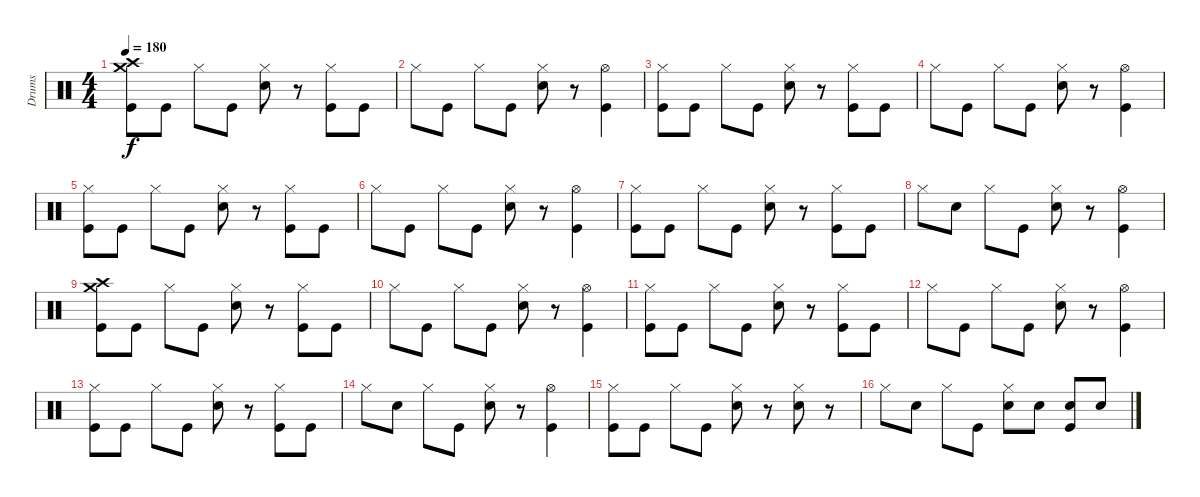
\track ("Drums" "Drums") {instrument percussion}
\staff {score}
\articulation defaults
\ts (4 4)
\tempo 180
\clef neutral
\ks c
("Crash medium (hit)" "Crash high (hit)" "Kick (hit)").8{dy f} "Kick (hit)".8 "Hi-Hat (closed)".8 "Kick (hit)".8 ("Hi-Hat (closed)" "Snare (hit) 2").8 r.8 ("Hi-Hat (closed)" "Kick (hit)").8 "Kick (hit)".8 |
"Hi-Hat (closed)".8 "Kick (hit)".8 "Hi-Hat (closed)".8 "Kick (hit)".8 ("Hi-Hat (closed)" "Snare (hit) 2").8 r.8 ("Hi-Hat (open)" "Kick (hit)").4 |
("Hi-Hat (closed)" "Kick (hit)").8 "Kick (hit)".8 "Hi-Hat (closed)".8 "Kick (hit)".8 ("Hi-Hat (closed)" "Snare (hit) 2").8 r.8 ("Hi-Hat (closed)" "Kick (hit)").8 "Kick (hit)".8 |
"Hi-Hat (closed)".8 "Kick (hit)".8 "Hi-Hat (closed)".8 "Kick (hit)".8 ("Hi-Hat (closed)" "Snare (hit) 2").8 r.8 ("Hi-Hat (open)" "Kick (hit)").4 |
("Hi-Hat (closed)" "Kick (hit)").8 "Kick (hit)".8 "Hi-Hat (closed)".8 "Kick (hit)".8 ("Hi-Hat (closed)" "Snare (hit) 2").8 r.8 ("Hi-Hat (closed)" "Kick (hit)").8 "Kick (hit)".8 |
"Hi-Hat (closed)".8 "Kick (hit)".8 "Hi-Hat (closed)".8 "Kick (hit)".8 ("Hi-Hat (closed)" "Snare (hit) 2").8 r.8 ("Hi-Hat (open)" "Kick (hit)").4 |
("Hi-Hat (closed)" "Kick (hit)").8 "Kick (hit)".8 "Hi-Hat (closed)".8 "Kick (hit)".8 ("Hi-Hat (closed)" "Snare (hit) 2").8 r.8 ("Hi-Hat (closed)" "Kick (hit)").8 "Kick (hit)".8 |
"Hi-Hat (closed)".8 "Snare (hit) 2".8 "Hi-Hat (closed)".8 "Kick (hit)".8 ("Hi-Hat (closed)" "Snare (hit) 2").8 r.8 ("Hi-Hat (open)" "Kick (hit)").4 |
("Crash medium (hit)" "Crash high (hit)" "Kick (hit)").8 "Kick (hit)".8 "Hi-Hat (closed)".8 "Kick (hit)".8 ("Hi-Hat (closed)" "Snare (hit) 2").8 r.8 ("Hi-Hat (closed)" "Kick (hit)").8 "Kick (hit)".8 |
"Hi-Hat (closed)".8 "Kick (hit)".8 "Hi-Hat (closed)".8 "Kick (hit)".8 ("Hi-Hat (closed)" "Snare (hit) 2").8 r.8 ("Hi-Hat (open)" "Kick (hit)").4 |
("Hi-Hat (closed)" "Kick (hit)").8 "Kick (hit)".8 "Hi-Hat (closed)".8 "Kick (hit)".8 ("Hi-Hat (closed)" "Snare (hit) 2").8 r.8 ("Hi-Hat (closed)" "Kick (hit)").8 "Kick (hit)".8 |
"Hi-Hat (closed)".8 "Kick (hit)".8 "Hi-Hat (closed)".8 "Kick (hit)".8 ("Hi-Hat (closed)" "Snare (hit) 2").8 r.8 ("Hi-Hat (open)" "Kick (hit)").4 |
("Hi-Hat (closed)" "Kick (hit)").8 "Kick (hit)".8 "Hi-Hat (closed)".8 "Kick (hit)".8 ("Hi-Hat (closed)" "Snare (hit) 2").8 r.8 ("Hi-Hat (closed)" "Kick (hit)").8 "Kick (hit)".8 |
"Hi-Hat (closed)".8 "Snare (hit) 2".8 "Hi-Hat (closed)".8 "Kick (hit)".8 ("Hi-Hat (closed)" "Snare (hit) 2").8 r.8 ("Hi-Hat (open)" "Kick (hit)").4 |
("Hi-Hat (closed)" "Kick (hit)").8 "Kick (hit)".8 "Hi-Hat (closed)".8 "Kick (hit)".8 ("Hi-Hat (closed)" "Snare (hit) 2").8 r.8 ("Hi-Hat (closed)" "Snare (hit) 2").8 r.8 |
"Hi-Hat (closed)".8 "Snare (hit) 2".8 "Hi-Hat (closed)".8 "Kick (hit)".8 ("Hi-Hat (closed)" "Snare (hit) 2").8 "Snare (hit) 2".8 ("Snare (hit) 2" "Kick (hit)").8 "Snare (hit) 2".8
